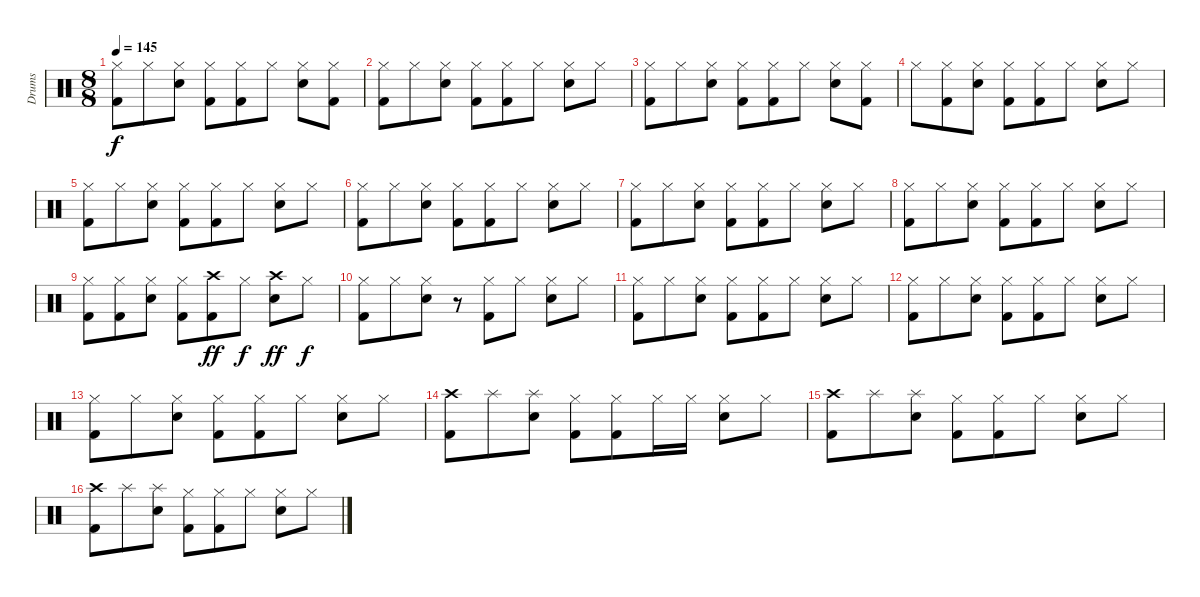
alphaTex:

\track ("Drums" "Drums") {instrument percussion}
\staff {score}
\articulation defaults
\ts (8 8)
\tempo 145
\clef neutral
\ks c
("Kick (hit) 2" "Hi-Hat (closed)").8{dy f} "Hi-Hat (closed)".8 ("Snare (hit) 2" "Hi-Hat (closed)").8 ("Kick (hit) 2" "Hi-Hat (closed)").8 ("Kick (hit) 2" "Hi-Hat (closed)").8 "Hi-Hat (closed)".8 ("Snare (hit) 2" "Hi-Hat (closed)").8 ("Kick (hit) 2" "Hi-Hat (closed)").8 |
("Kick (hit) 2" "Hi-Hat (closed)").8 "Hi-Hat (closed)".8 ("Snare (hit) 2" "Hi-Hat (closed)").8 ("Kick (hit) 2" "Hi-Hat (closed)").8 ("Kick (hit) 2" "Hi-Hat (closed)").8 "Hi-Hat (closed)".8 ("Snare (hit) 2" "Hi-Hat (closed)").8 "Hi-Hat (closed)".8 |
("Kick (hit) 2" "Hi-Hat (closed)").8 "Hi-Hat (closed)".8 ("Snare (hit) 2" "Hi-Hat (closed)").8 ("Kick (hit) 2" "Hi-Hat (closed)").8 ("Kick (hit) 2" "Hi-Hat (closed)").8 "Hi-Hat (closed)".8 ("Snare (hit) 2" "Hi-Hat (closed)").8 ("Kick (hit) 2" "Hi-Hat (closed)").8 |
"Hi-Hat (closed)".8 ("Kick (hit) 2" "Hi-Hat (closed)").8 ("Snare (hit) 2" "Hi-Hat (closed)").8 ("Kick (hit) 2" "Hi-Hat (closed)").8 ("Kick (hit) 2" "Hi-Hat (closed)").8 "Hi-Hat (closed)".8 ("Snare (hit) 2" "Hi-Hat (closed)").8 "Hi-Hat (closed)".8 |
("Kick (hit) 2" "Hi-Hat (closed)").8 "Hi-Hat (closed)".8 ("Snare (hit) 2" "Hi-Hat (closed)").8 ("Kick (hit) 2" "Hi-Hat (closed)").8 ("Kick (hit) 2" "Hi-Hat (closed)").8 "Hi-Hat (closed)".8 ("Snare (hit) 2" "Hi-Hat (closed)").8 "Hi-Hat (closed)".8 |
("Kick (hit) 2" "Hi-Hat (closed)").8 "Hi-Hat (closed)".8 ("Snare (hit) 2" "Hi-Hat (closed)").8 ("Kick (hit) 2" "Hi-Hat (closed)").8 ("Kick (hit) 2" "Hi-Hat (closed)").8 "Hi-Hat (closed)".8 ("Snare (hit) 2" "Hi-Hat (closed)").8 "Hi-Hat (closed)".8 |
("Kick (hit) 2" "Hi-Hat (closed)").8 "Hi-Hat (closed)".8 ("Snare (hit) 2" "Hi-Hat (closed)").8 ("Kick (hit) 2" "Hi-Hat (closed)").8 ("Kick (hit) 2" "Hi-Hat (closed)").8 "Hi-Hat (closed)".8 ("Snare (hit) 2" "Hi-Hat (closed)").8 "Hi-Hat (closed)".8 |
("Kick (hit) 2" "Hi-Hat (closed)").8 "Hi-Hat (closed)".8 ("Snare (hit) 2" "Hi-Hat (closed)").8 ("Kick (hit) 2" "Hi-Hat (closed)").8 ("Kick (hit) 2" "Hi-Hat (closed)").8 "Hi-Hat (closed)".8 ("Snare (hit) 2" "Hi-Hat (closed)").8 "Hi-Hat (closed)".8 |
("Kick (hit) 2" "Hi-Hat (closed)").8 ("Kick (hit) 2" "Hi-Hat (closed)").8 ("Snare (hit) 2" "Hi-Hat (closed)").8 ("Kick (hit) 2" "Hi-Hat (closed)").8 ("Kick (hit) 2" "Crash high (hit)").8{dy ff} "Hi-Hat (closed)".8{dy f} ("Snare (hit) 2" "Crash high (hit)").8{dy ff} "Hi-Hat (closed)".8{dy f} |
("Kick (hit) 2" "Hi-Hat (closed)").8 "Hi-Hat (closed)".8 ("Snare (hit) 2" "Hi-Hat (closed)").8 r.8 ("Kick (hit) 2" "Hi-Hat (closed)").8 "Hi-Hat (closed)".8 ("Snare (hit) 2" "Hi-Hat (closed)").8 "Hi-Hat (closed)".8 |
("Kick (hit) 2" "Hi-Hat (closed)").8 "Hi-Hat (closed)".8 ("Snare (hit) 2" "Hi-Hat (closed)").8 ("Kick (hit) 2" "Hi-Hat (closed)").8 ("Kick (hit) 2" "Hi-Hat (closed)").8 "Hi-Hat (closed)".8 ("Snare (hit) 2" "Hi-Hat (closed)").8 "Hi-Hat (closed)".8 |
("Kick (hit) 2" "Hi-Hat (closed)").8 "Hi-Hat (closed)".8 ("Snare (hit) 2" "Hi-Hat (closed)").8 ("Kick (hit) 2" "Hi-Hat (closed)").8 ("Kick (hit) 2" "Hi-Hat (closed)").8 "Hi-Hat (closed)".8 ("Snare (hit) 2" "Hi-Hat (closed)").8 "Hi-Hat (closed)".8 |
("Kick (hit) 2" "Hi-Hat (closed)").8 "Hi-Hat (closed)".8 ("Snare (hit) 2" "Hi-Hat (closed)").8 ("Kick (hit) 2" "Hi-Hat (closed)").8 ("Kick (hit) 2" "Hi-Hat (closed)").8 "Hi-Hat (closed)".8 ("Snare (hit) 2" "Hi-Hat (closed)").8 "Hi-Hat (closed)".8 |
("Kick (hit) 2" "Crash high (hit)").8 "Splash (hit)".8 ("Snare (hit) 2" "Splash (hit)").8 ("Kick (hit) 2" "Hi-Hat (closed)").8 ("Kick (hit) 2" "Hi-Hat (closed)").8 "Hi-Hat (closed)".16 "Hi-Hat (closed)".16 ("Snare (hit) 2" "Hi-Hat (closed)").8 "Hi-Hat (closed)".8 |
("Kick (hit) 2" "Crash high (hit)").8 "Splash (hit)".8 ("Snare (hit) 2" "Splash (hit)").8 ("Kick (hit) 2" "Hi-Hat (closed)").8 ("Kick (hit) 2" "Hi-Hat (closed)").8 "Hi-Hat (closed)".8 ("Snare (hit) 2" "Hi-Hat (closed)").8 "Hi-Hat (closed)".8 |
("Kick (hit) 2" "Crash high (hit)").8 "Splash (hit)".8 ("Snare (hit) 2" "Splash (hit)").8 ("Kick (hit) 2" "Hi-Hat (closed)").8 ("Kick (hit) 2" "Hi-Hat (closed)").8 "Hi-Hat (closed)".8 ("Snare (hit) 2" "Hi-Hat (closed)").8 "Hi-Hat (closed)".8
